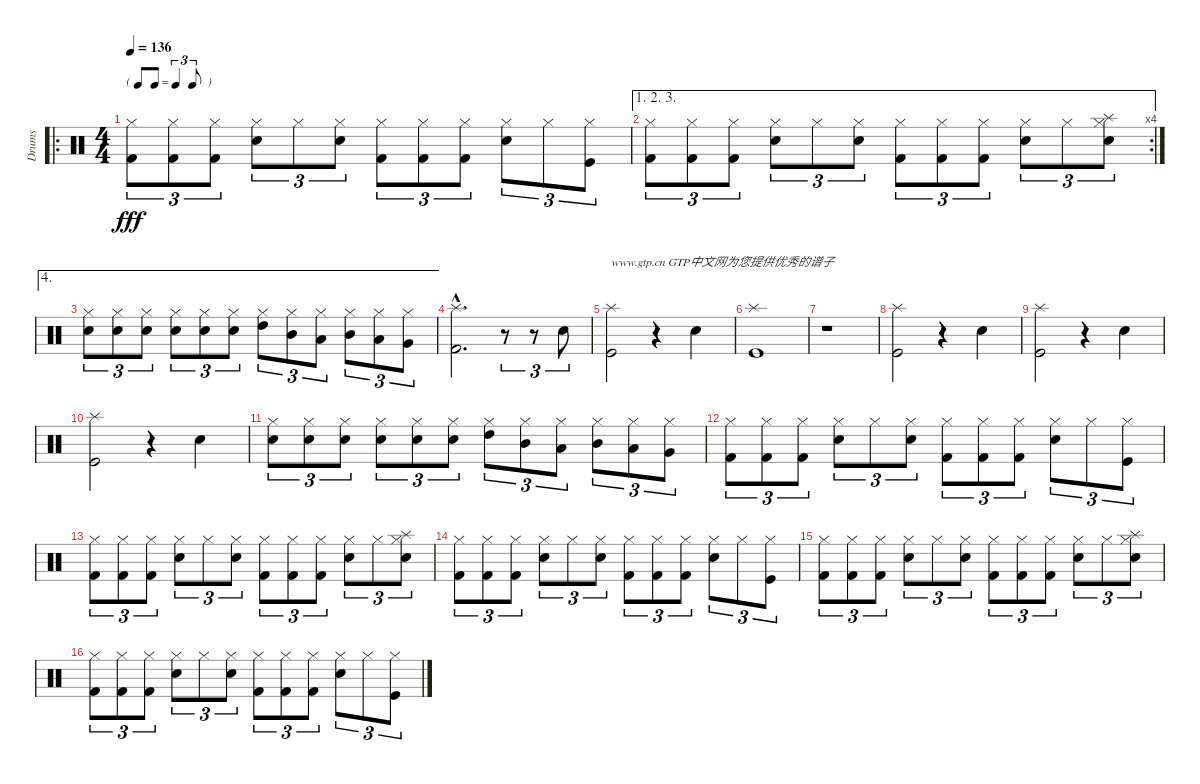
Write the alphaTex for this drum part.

\track ("Drums" "Drums") {instrument percussion}
\staff {score}
\articulation defaults
\ro
\ts (4 4)
\tf triplet8th
\tempo 136
\clef neutral
\ks c
("Hi-Hat (closed)" "Kick (hit) 2").8{tu (3 2) dy fff} ("Hi-Hat (closed)" "Kick (hit) 2").8{tu (3 2)} ("Hi-Hat (closed)" "Kick (hit) 2").8{tu (3 2)} ("Hi-Hat (closed)" "Snare (hit) 2").8{tu (3 2)} "Hi-Hat (closed)".8{tu (3 2)} ("Hi-Hat (closed)" "Snare (hit) 2").8{tu (3 2)} ("Hi-Hat (closed)" "Kick (hit) 2").8{tu (3 2)} ("Hi-Hat (closed)" "Kick (hit) 2").8{tu (3 2)} ("Hi-Hat (closed)" "Kick (hit) 2").8{tu (3 2)} ("Hi-Hat (closed)" "Snare (hit) 2").8{tu (3 2)} "Hi-Hat (closed)".8{tu (3 2)} ("Hi-Hat (closed)" "Kick (hit)").8{tu (3 2)} |
\ae (1 2 3)
\rc 4
("Hi-Hat (closed)" "Kick (hit) 2").8{tu (3 2)} ("Hi-Hat (closed)" "Kick (hit) 2").8{tu (3 2)} ("Hi-Hat (closed)" "Kick (hit) 2").8{tu (3 2)} ("Hi-Hat (closed)" "Snare (hit) 2").8{tu (3 2)} "Hi-Hat (closed)".8{tu (3 2)} ("Hi-Hat (closed)" "Snare (hit) 2").8{tu (3 2)} ("Hi-Hat (closed)" "Kick (hit) 2").8{tu (3 2)} ("Hi-Hat (closed)" "Kick (hit) 2").8{tu (3 2)} ("Hi-Hat (closed)" "Kick (hit) 2").8{tu (3 2)} ("Hi-Hat (closed)" "Snare (hit) 2").8{tu (3 2)} "Hi-Hat (closed)".8{tu (3 2)} ("Hi-Hat (closed)" "Snare (hit) 2" "Splash (hit)").8{tu (3 2)} |
\ae 4
("Hi-Hat (closed)" "Snare (hit) 2").8{tu (3 2)} ("Hi-Hat (closed)" "Snare (hit) 2").8{tu (3 2)} ("Hi-Hat (closed)" "Snare (hit) 2").8{tu (3 2)} ("Hi-Hat (closed)" "Snare (hit) 2").8{tu (3 2)} ("Hi-Hat (closed)" "Snare (hit) 2").8{tu (3 2)} ("Hi-Hat (closed)" "Snare (hit) 2").8{tu (3 2)} ("Hi-Hat (closed)" "High Tom (hit)").8{tu (3 2)} ("Hi-Hat (closed)" "Mid Tom (hit)").8{tu (3 2)} ("Hi-Hat (closed)" "Low Tom (hit)").8{tu (3 2)} ("Hi-Hat (closed)" "Mid Tom (hit)").8{tu (3 2)} ("Hi-Hat (closed)" "Low Tom (hit)").8{tu (3 2)} ("Hi-Hat (closed)" "Very Low Tom (hit)").8{tu (3 2)} |
("Kick (hit) 2"{hac} "Splash (hit)"{hac}).2{d} r.8{tu (3 2)} r.8{tu (3 2)} "Snare (hit) 2".8{tu (3 2)} |
("Kick (hit)" "Splash (hit)").2{txt "www.gtp.cn GTP中文网为您提供优秀的谱子"} r.4 "Snare (hit) 2".4 |
("Kick (hit)" "Splash (hit)").1 |
r.1 |
("Kick (hit)" "Splash (hit)").2 r.4 "Snare (hit) 2".4 |
("Kick (hit)" "Splash (hit)").2 r.4 "Snare (hit) 2".4 |
("Kick (hit)" "Splash (hit)").2 r.4 "Snare (hit) 2".4 |
("Hi-Hat (closed)" "Snare (hit) 2").8{tu (3 2)} ("Hi-Hat (closed)" "Snare (hit) 2").8{tu (3 2)} ("Hi-Hat (closed)" "Snare (hit) 2").8{tu (3 2)} ("Hi-Hat (closed)" "Snare (hit) 2").8{tu (3 2)} ("Hi-Hat (closed)" "Snare (hit) 2").8{tu (3 2)} ("Hi-Hat (closed)" "Snare (hit) 2").8{tu (3 2)} ("Hi-Hat (closed)" "High Tom (hit)").8{tu (3 2)} ("Hi-Hat (closed)" "Mid Tom (hit)").8{tu (3 2)} ("Hi-Hat (closed)" "Low Tom (hit)").8{tu (3 2)} ("Hi-Hat (closed)" "Mid Tom (hit)").8{tu (3 2)} ("Hi-Hat (closed)" "Low Tom (hit)").8{tu (3 2)} ("Hi-Hat (closed)" "Very Low Tom (hit)").8{tu (3 2)} |
("Hi-Hat (closed)" "Kick (hit) 2").8{tu (3 2)} ("Hi-Hat (closed)" "Kick (hit) 2").8{tu (3 2)} ("Hi-Hat (closed)" "Kick (hit) 2").8{tu (3 2)} ("Hi-Hat (closed)" "Snare (hit) 2").8{tu (3 2)} "Hi-Hat (closed)".8{tu (3 2)} ("Hi-Hat (closed)" "Snare (hit) 2").8{tu (3 2)} ("Hi-Hat (closed)" "Kick (hit) 2").8{tu (3 2)} ("Hi-Hat (closed)" "Kick (hit) 2").8{tu (3 2)} ("Hi-Hat (closed)" "Kick (hit) 2").8{tu (3 2)} ("Hi-Hat (closed)" "Snare (hit) 2").8{tu (3 2)} "Hi-Hat (closed)".8{tu (3 2)} ("Hi-Hat (closed)" "Kick (hit)").8{tu (3 2)} |
("Hi-Hat (closed)" "Kick (hit) 2").8{tu (3 2)} ("Hi-Hat (closed)" "Kick (hit) 2").8{tu (3 2)} ("Hi-Hat (closed)" "Kick (hit) 2").8{tu (3 2)} ("Hi-Hat (closed)" "Snare (hit) 2").8{tu (3 2)} "Hi-Hat (closed)".8{tu (3 2)} ("Hi-Hat (closed)" "Snare (hit) 2").8{tu (3 2)} ("Hi-Hat (closed)" "Kick (hit) 2").8{tu (3 2)} ("Hi-Hat (closed)" "Kick (hit) 2").8{tu (3 2)} ("Hi-Hat (closed)" "Kick (hit) 2").8{tu (3 2)} ("Hi-Hat (closed)" "Snare (hit) 2").8{tu (3 2)} "Hi-Hat (closed)".8{tu (3 2)} ("Hi-Hat (closed)" "Snare (hit) 2" "Splash (hit)").8{tu (3 2)} |
("Hi-Hat (closed)" "Kick (hit) 2").8{tu (3 2)} ("Hi-Hat (closed)" "Kick (hit) 2").8{tu (3 2)} ("Hi-Hat (closed)" "Kick (hit) 2").8{tu (3 2)} ("Hi-Hat (closed)" "Snare (hit) 2").8{tu (3 2)} "Hi-Hat (closed)".8{tu (3 2)} ("Hi-Hat (closed)" "Snare (hit) 2").8{tu (3 2)} ("Hi-Hat (closed)" "Kick (hit) 2").8{tu (3 2)} ("Hi-Hat (closed)" "Kick (hit) 2").8{tu (3 2)} ("Hi-Hat (closed)" "Kick (hit) 2").8{tu (3 2)} ("Hi-Hat (closed)" "Snare (hit) 2").8{tu (3 2)} "Hi-Hat (closed)".8{tu (3 2)} ("Hi-Hat (closed)" "Kick (hit)").8{tu (3 2)} |
("Hi-Hat (closed)" "Kick (hit) 2").8{tu (3 2)} ("Hi-Hat (closed)" "Kick (hit) 2").8{tu (3 2)} ("Hi-Hat (closed)" "Kick (hit) 2").8{tu (3 2)} ("Hi-Hat (closed)" "Snare (hit) 2").8{tu (3 2)} "Hi-Hat (closed)".8{tu (3 2)} ("Hi-Hat (closed)" "Snare (hit) 2").8{tu (3 2)} ("Hi-Hat (closed)" "Kick (hit) 2").8{tu (3 2)} ("Hi-Hat (closed)" "Kick (hit) 2").8{tu (3 2)} ("Hi-Hat (closed)" "Kick (hit) 2").8{tu (3 2)} ("Hi-Hat (closed)" "Snare (hit) 2").8{tu (3 2)} "Hi-Hat (closed)".8{tu (3 2)} ("Hi-Hat (closed)" "Snare (hit) 2" "Splash (hit)").8{tu (3 2)} |
("Hi-Hat (closed)" "Kick (hit) 2").8{tu (3 2)} ("Hi-Hat (closed)" "Kick (hit) 2").8{tu (3 2)} ("Hi-Hat (closed)" "Kick (hit) 2").8{tu (3 2)} ("Hi-Hat (closed)" "Snare (hit) 2").8{tu (3 2)} "Hi-Hat (closed)".8{tu (3 2)} ("Hi-Hat (closed)" "Snare (hit) 2").8{tu (3 2)} ("Hi-Hat (closed)" "Kick (hit) 2").8{tu (3 2)} ("Hi-Hat (closed)" "Kick (hit) 2").8{tu (3 2)} ("Hi-Hat (closed)" "Kick (hit) 2").8{tu (3 2)} ("Hi-Hat (closed)" "Snare (hit) 2").8{tu (3 2)} "Hi-Hat (closed)".8{tu (3 2)} ("Hi-Hat (closed)" "Kick (hit)").8{tu (3 2)}
